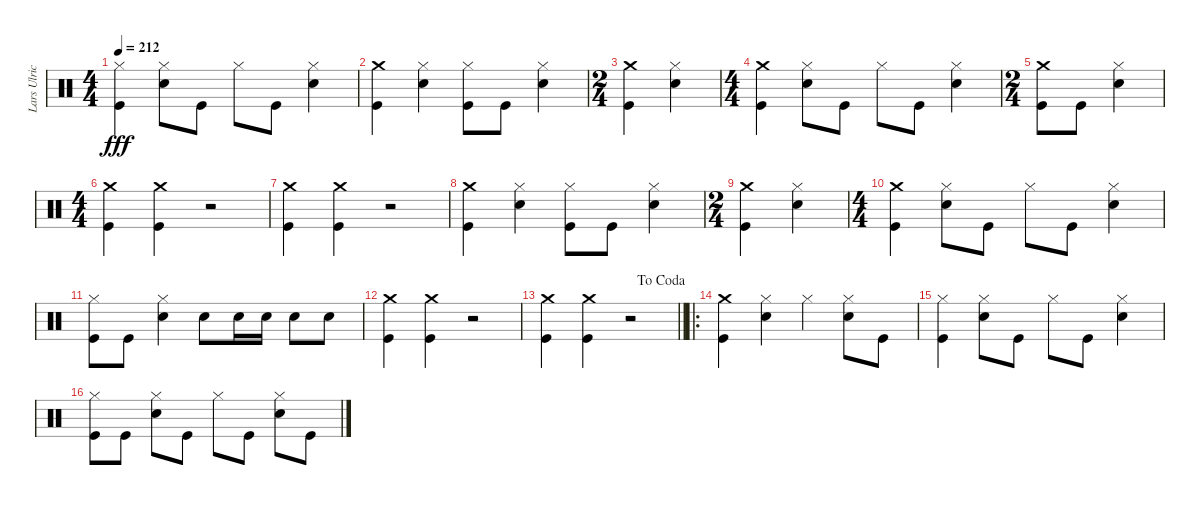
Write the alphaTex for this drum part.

\track ("Lars Ulrich" "Lars Ulric") {instrument percussion}
\staff {score}
\articulation defaults
\ts (4 4)
\tempo 212
\clef neutral
\ks c
("Hi-Hat (closed)" "Kick (hit)").4{dy fff} ("Snare (hit) 2" "Hi-Hat (closed)").8 "Kick (hit)".8 "Hi-Hat (closed)".8 "Kick (hit)".8 ("Snare (hit) 2" "Hi-Hat (closed)").4 |
("Kick (hit)" "Crash medium (hit)").4 ("Snare (hit) 2" "Hi-Hat (closed)").4 ("Kick (hit)" "Hi-Hat (closed)").8 "Kick (hit)".8 ("Hi-Hat (closed)" "Snare (hit) 2").4 |
\ts (2 4)
("Kick (hit)" "Crash medium (hit)").4 ("Snare (hit) 2" "Hi-Hat (closed)").4 |
\ts (4 4)
("Kick (hit)" "Crash medium (hit)").4 ("Snare (hit) 2" "Hi-Hat (closed)").8 "Kick (hit)".8 "Hi-Hat (closed)".8 "Kick (hit)".8 ("Hi-Hat (closed)" "Snare (hit) 2").4 |
\ts (2 4)
("Kick (hit)" "Crash medium (hit)").8 "Kick (hit)".8 ("Snare (hit) 2" "Hi-Hat (closed)").4 |
\ts (4 4)
("Kick (hit)" "Crash medium (hit)").4 ("Kick (hit)" "Crash medium (hit)").4 r.2 |
("Kick (hit)" "Crash medium (hit)").4 ("Crash medium (hit)" "Kick (hit)").4 r.2 |
("Kick (hit)" "Crash medium (hit)").4 ("Snare (hit) 2" "Hi-Hat (closed)").4 ("Kick (hit)" "Hi-Hat (closed)").8 "Kick (hit)".8 ("Snare (hit) 2" "Hi-Hat (closed)").4 |
\ts (2 4)
("Crash medium (hit)" "Kick (hit)").4 ("Snare (hit) 2" "Hi-Hat (closed)").4 |
\ts (4 4)
("Kick (hit)" "Crash medium (hit)").4 ("Snare (hit) 2" "Hi-Hat (closed)").8 "Kick (hit)".8 "Hi-Hat (closed)".8 "Kick (hit)".8 ("Snare (hit) 2" "Hi-Hat (closed)").4 |
("Hi-Hat (closed)" "Kick (hit)").8 "Kick (hit)".8 ("Hi-Hat (closed)" "Snare (hit) 2").4 "Snare (hit) 2".8 "Snare (hit) 2".16 "Snare (hit) 2".16 "Snare (hit) 2".8 "Snare (hit) 2".8 |
("Kick (hit)" "Crash medium (hit)").4 ("Kick (hit)" "Crash medium (hit)").4 r.2 |
\jump dacoda
\barLineRight lightlight
("Crash medium (hit)" "Kick (hit)").4 ("Kick (hit)" "Crash medium (hit)").4 r.2 |
\ro
("Kick (hit)" "Crash medium (hit)").4 ("Snare (hit) 2" "Hi-Hat (closed)").4 "Hi-Hat (closed)".4 ("Snare (hit) 2" "Hi-Hat (closed)").8 "Kick (hit)".8 |
("Hi-Hat (closed)" "Kick (hit)").4 ("Hi-Hat (closed)" "Snare (hit) 2").8 "Kick (hit)".8 "Hi-Hat (closed)".8 "Kick (hit)".8 ("Snare (hit) 2" "Hi-Hat (closed)").4 |
("Hi-Hat (closed)" "Kick (hit)").8 "Kick (hit)".8 ("Snare (hit) 2" "Hi-Hat (closed)").8 "Kick (hit)".8 "Hi-Hat (closed)".8 "Kick (hit)".8 ("Snare (hit) 2" "Hi-Hat (closed)").8 "Kick (hit)".8
